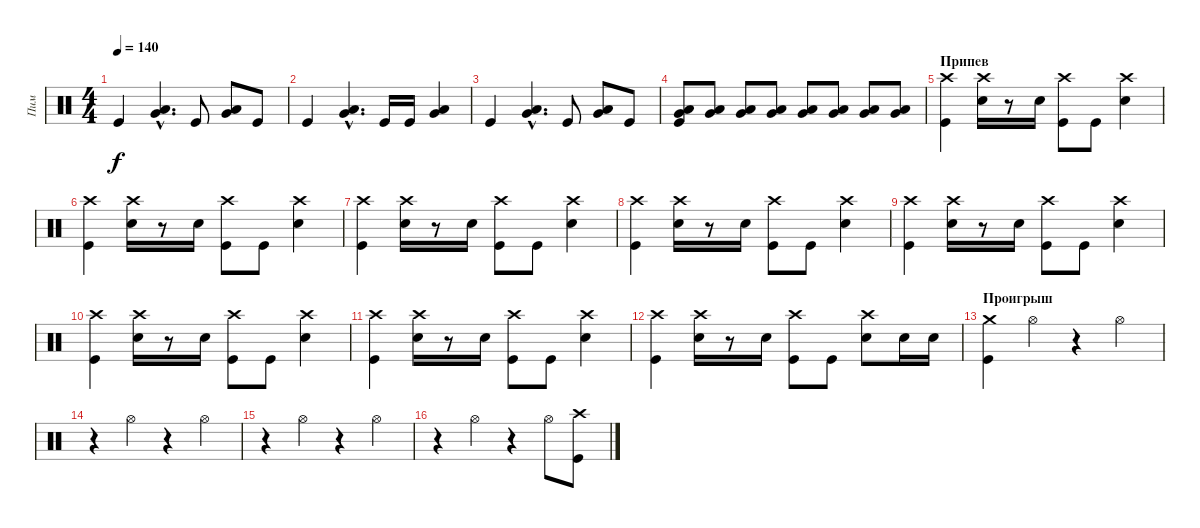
\track ("Пим" "Пим") {instrument percussion}
\staff {score}
\articulation defaults
\ts (4 4)
\tempo 140
\clef neutral
\ks c "Kick (hit)".4{dy f}
("Low Tom (hit)"{hac} "Very Low Tom (hit)"{hac}).4{d} "Kick (hit)".8 ("Very Low Tom (hit)" "Low Floor Tom (hit)").8 "Kick (hit)".8 |
"Kick (hit)".4 ("Low Tom (hit)"{hac} "Very Low Tom (hit)"{hac}).4{d} "Kick (hit)".16 "Kick (hit)".16 ("Very Low Tom (hit)" "Low Floor Tom (hit)").4 |
"Kick (hit)".4 ("Low Tom (hit)"{hac} "Very Low Tom (hit)"{hac}).4{d} "Kick (hit)".8 ("Very Low Tom (hit)" "Low Floor Tom (hit)").8 "Kick (hit)".8 |
("Very Low Tom (hit)" "Low Floor Tom (hit)" "Kick (hit)").8 ("Very Low Tom (hit)" "Low Floor Tom (hit)").8 ("Very Low Tom (hit)" "Low Floor Tom (hit)").8 ("Very Low Tom (hit)" "Low Floor Tom (hit)").8 ("Very Low Tom (hit)" "Low Floor Tom (hit)").8 ("Very Low Tom (hit)" "Low Floor Tom (hit)").8 ("Very Low Tom (hit)" "Low Floor Tom (hit)").8 ("Very Low Tom (hit)" "Low Floor Tom (hit)").8 |
\section ("" "Припев")
("Crash high (hit)" "Kick (hit)").4 ("Crash high (hit)" "Snare (hit) 2").16 r.8 "Snare (hit) 2".16 ("Crash high (hit)" "Kick (hit)").8 "Kick (hit)".8 ("Crash high (hit)" "Snare (hit) 2").4 |
("Crash high (hit)" "Kick (hit)").4 ("Crash high (hit)" "Snare (hit) 2").16 r.8 "Snare (hit) 2".16 ("Crash high (hit)" "Kick (hit)").8 "Kick (hit)".8 ("Crash high (hit)" "Snare (hit) 2").4 |
("Crash high (hit)" "Kick (hit)").4 ("Crash high (hit)" "Snare (hit) 2").16 r.8 "Snare (hit) 2".16 ("Crash high (hit)" "Kick (hit)").8 "Kick (hit)".8 ("Crash high (hit)" "Snare (hit) 2").4 |
("Crash high (hit)" "Kick (hit)").4 ("Crash high (hit)" "Snare (hit) 2").16 r.8 "Snare (hit) 2".16 ("Crash high (hit)" "Kick (hit)").8 "Kick (hit)".8 ("Crash high (hit)" "Snare (hit) 2").4 |
("Crash high (hit)" "Kick (hit)").4 ("Crash high (hit)" "Snare (hit) 2").16 r.8 "Snare (hit) 2".16 ("Crash high (hit)" "Kick (hit)").8 "Kick (hit)".8 ("Crash high (hit)" "Snare (hit) 2").4 |
("Crash high (hit)" "Kick (hit)").4 ("Crash high (hit)" "Snare (hit) 2").16 r.8 "Snare (hit) 2".16 ("Crash high (hit)" "Kick (hit)").8 "Kick (hit)".8 ("Crash high (hit)" "Snare (hit) 2").4 |
("Crash high (hit)" "Kick (hit)").4 ("Crash high (hit)" "Snare (hit) 2").16 r.8 "Snare (hit) 2".16 ("Crash high (hit)" "Kick (hit)").8 "Kick (hit)".8 ("Crash high (hit)" "Snare (hit) 2").4 |
("Crash high (hit)" "Kick (hit)").4 ("Crash high (hit)" "Snare (hit) 2").16 r.8 "Snare (hit) 2".16 ("Crash high (hit)" "Kick (hit)").8 "Kick (hit)".8 ("Crash high (hit)" "Snare (hit) 2").8 "Snare (hit) 2".16 "Snare (hit) 2".16 |
\section ("" "Проигрыш")
("Crash medium (hit)" "Kick (hit)").4 "Hi-Hat (open)".4 r.4 "Hi-Hat (open)".4 |
r.4 "Hi-Hat (open)".4 r.4 "Hi-Hat (open)".4 |
r.4 "Hi-Hat (open)".4 r.4 "Hi-Hat (open)".4 |
r.4 "Hi-Hat (open)".4 r.4 "Hi-Hat (open)".8 ("Crash high (hit)" "Kick (hit)").8
